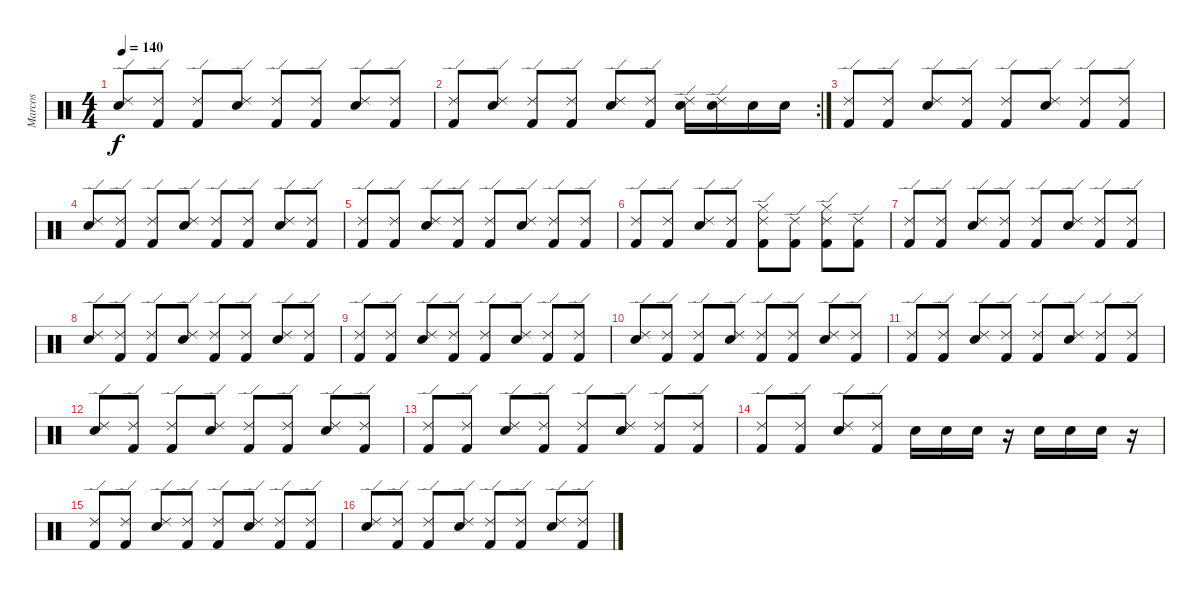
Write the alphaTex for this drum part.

\track ("Marcos" "Marcos") {instrument percussion}
\staff {score}
\articulation defaults
\ts (4 4)
\tempo 140
\clef neutral
\ks c
("Ride (edge) 2" "Electric Snare (hit)").8{dy f} ("Ride (edge) 2" "Kick (hit) 2").8 ("Ride (edge) 2" "Kick (hit) 2").8 ("Ride (edge) 2" "Electric Snare (hit)").8 ("Ride (edge) 2" "Kick (hit) 2").8 ("Ride (edge) 2" "Kick (hit) 2").8 ("Ride (edge) 2" "Electric Snare (hit)").8 ("Ride (edge) 2" "Kick (hit) 2").8 |
\rc 2
("Ride (edge) 2" "Kick (hit) 2").8 ("Ride (edge) 2" "Electric Snare (hit)").8 ("Ride (edge) 2" "Kick (hit) 2").8 ("Ride (edge) 2" "Kick (hit) 2").8 ("Ride (edge) 2" "Electric Snare (hit)").8 ("Ride (edge) 2" "Kick (hit) 2").8 ("Ride (edge) 2" "Electric Snare (hit)").16 ("Ride (edge) 2" "Electric Snare (hit)").16 "Electric Snare (hit)".16 "Electric Snare (hit)".16 |
("Ride (edge) 2" "Kick (hit) 2").8 ("Ride (edge) 2" "Kick (hit) 2").8 ("Ride (edge) 2" "Electric Snare (hit)").8 ("Ride (edge) 2" "Kick (hit) 2").8 ("Ride (edge) 2" "Kick (hit) 2").8 ("Ride (edge) 2" "Electric Snare (hit)").8 ("Ride (edge) 2" "Kick (hit) 2").8 ("Ride (edge) 2" "Kick (hit) 2").8 |
("Ride (edge) 2" "Electric Snare (hit)").8 ("Ride (edge) 2" "Kick (hit) 2").8 ("Ride (edge) 2" "Kick (hit) 2").8 ("Ride (edge) 2" "Electric Snare (hit)").8 ("Ride (edge) 2" "Kick (hit) 2").8 ("Ride (edge) 2" "Kick (hit) 2").8 ("Ride (edge) 2" "Electric Snare (hit)").8 ("Ride (edge) 2" "Kick (hit) 2").8 |
("Ride (edge) 2" "Kick (hit) 2").8 ("Ride (edge) 2" "Kick (hit) 2").8 ("Ride (edge) 2" "Electric Snare (hit)").8 ("Ride (edge) 2" "Kick (hit) 2").8 ("Ride (edge) 2" "Kick (hit) 2").8 ("Ride (edge) 2" "Electric Snare (hit)").8 ("Ride (edge) 2" "Kick (hit) 2").8 ("Ride (edge) 2" "Kick (hit) 2").8 |
("Ride (edge) 2" "Kick (hit) 2").8 ("Ride (edge) 2" "Kick (hit) 2").8 ("Ride (edge) 2" "Electric Snare (hit)").8 ("Ride (edge) 2" "Kick (hit) 2").8 ("Ride (edge) 2" "Hi-Hat (closed)" "Kick (hit) 2").8 ("Ride (edge) 2" "Kick (hit) 2").8 ("Ride (edge) 2" "Hi-Hat (closed)" "Kick (hit) 2").8 ("Ride (edge) 2" "Kick (hit) 2").8 |
("Ride (edge) 2" "Kick (hit) 2").8 ("Ride (edge) 2" "Kick (hit) 2").8 ("Ride (edge) 2" "Electric Snare (hit)").8 ("Ride (edge) 2" "Kick (hit) 2").8 ("Ride (edge) 2" "Kick (hit) 2").8 ("Ride (edge) 2" "Electric Snare (hit)").8 ("Ride (edge) 2" "Kick (hit) 2").8 ("Ride (edge) 2" "Kick (hit) 2").8 |
("Ride (edge) 2" "Electric Snare (hit)").8 ("Ride (edge) 2" "Kick (hit) 2").8 ("Ride (edge) 2" "Kick (hit) 2").8 ("Ride (edge) 2" "Electric Snare (hit)").8 ("Ride (edge) 2" "Kick (hit) 2").8 ("Ride (edge) 2" "Kick (hit) 2").8 ("Ride (edge) 2" "Electric Snare (hit)").8 ("Ride (edge) 2" "Kick (hit) 2").8 |
("Ride (edge) 2" "Kick (hit) 2").8 ("Ride (edge) 2" "Kick (hit) 2").8 ("Ride (edge) 2" "Electric Snare (hit)").8 ("Ride (edge) 2" "Kick (hit) 2").8 ("Ride (edge) 2" "Kick (hit) 2").8 ("Ride (edge) 2" "Electric Snare (hit)").8 ("Ride (edge) 2" "Kick (hit) 2").8 ("Ride (edge) 2" "Kick (hit) 2").8 |
("Ride (edge) 2" "Electric Snare (hit)").8 ("Ride (edge) 2" "Kick (hit) 2").8 ("Ride (edge) 2" "Kick (hit) 2").8 ("Ride (edge) 2" "Electric Snare (hit)").8 ("Ride (edge) 2" "Kick (hit) 2").8 ("Ride (edge) 2" "Kick (hit) 2").8 ("Ride (edge) 2" "Electric Snare (hit)").8 ("Ride (edge) 2" "Kick (hit) 2").8 |
("Ride (edge) 2" "Kick (hit) 2").8 ("Ride (edge) 2" "Kick (hit) 2").8 ("Ride (edge) 2" "Electric Snare (hit)").8 ("Ride (edge) 2" "Kick (hit) 2").8 ("Ride (edge) 2" "Kick (hit) 2").8 ("Ride (edge) 2" "Electric Snare (hit)").8 ("Ride (edge) 2" "Kick (hit) 2").8 ("Ride (edge) 2" "Kick (hit) 2").8 |
("Ride (edge) 2" "Electric Snare (hit)").8 ("Ride (edge) 2" "Kick (hit) 2").8 ("Ride (edge) 2" "Kick (hit) 2").8 ("Ride (edge) 2" "Electric Snare (hit)").8 ("Ride (edge) 2" "Kick (hit) 2").8 ("Ride (edge) 2" "Kick (hit) 2").8 ("Ride (edge) 2" "Electric Snare (hit)").8 ("Ride (edge) 2" "Kick (hit) 2").8 |
("Ride (edge) 2" "Kick (hit) 2").8 ("Ride (edge) 2" "Kick (hit) 2").8 ("Ride (edge) 2" "Electric Snare (hit)").8 ("Ride (edge) 2" "Kick (hit) 2").8 ("Ride (edge) 2" "Kick (hit) 2").8 ("Ride (edge) 2" "Electric Snare (hit)").8 ("Ride (edge) 2" "Kick (hit) 2").8 ("Ride (edge) 2" "Kick (hit) 2").8 |
("Ride (edge) 2" "Kick (hit) 2").8 ("Ride (edge) 2" "Kick (hit) 2").8 ("Ride (edge) 2" "Electric Snare (hit)").8 ("Ride (edge) 2" "Kick (hit) 2").8 "Electric Snare (hit)".16 "Electric Snare (hit)".16 "Electric Snare (hit)".16 r.16 "Electric Snare (hit)".16 "Electric Snare (hit)".16 "Electric Snare (hit)".16 r.16 |
("Ride (edge) 2" "Kick (hit) 2").8 ("Ride (edge) 2" "Kick (hit) 2").8 ("Ride (edge) 2" "Electric Snare (hit)").8 ("Ride (edge) 2" "Kick (hit) 2").8 ("Ride (edge) 2" "Kick (hit) 2").8 ("Ride (edge) 2" "Electric Snare (hit)").8 ("Ride (edge) 2" "Kick (hit) 2").8 ("Ride (edge) 2" "Kick (hit) 2").8 |
("Ride (edge) 2" "Electric Snare (hit)").8 ("Ride (edge) 2" "Kick (hit) 2").8 ("Ride (edge) 2" "Kick (hit) 2").8 ("Ride (edge) 2" "Electric Snare (hit)").8 ("Ride (edge) 2" "Kick (hit) 2").8 ("Ride (edge) 2" "Kick (hit) 2").8 ("Ride (edge) 2" "Electric Snare (hit)").8 ("Ride (edge) 2" "Kick (hit) 2").8
